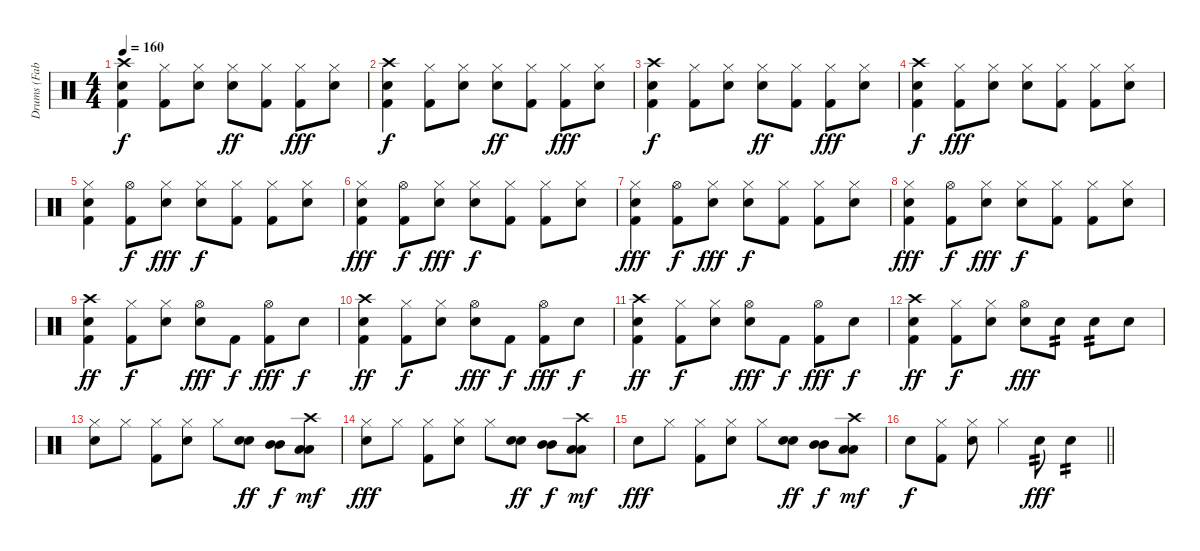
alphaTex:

\track ("Drums (Fabrizio Moretti)" "Drums (Fab") {instrument percussion}
\staff {score}
\articulation defaults
\ts (4 4)
\tempo 160
\clef neutral
\ks c
("Kick (hit) 2" "Electric Snare (hit)" "Crash high (hit)").4{dy f} ("Kick (hit) 2" "Hi-Hat (closed)").8 ("Electric Snare (hit)" "Hi-Hat (closed)").8 ("Electric Snare (hit)" "Hi-Hat (closed)").8{dy ff} ("Kick (hit) 2" "Hi-Hat (closed)").8 ("Kick (hit) 2" "Hi-Hat (closed)").8{dy fff} ("Electric Snare (hit)" "Hi-Hat (closed)").8 |
("Kick (hit) 2" "Electric Snare (hit)" "Crash high (hit)").4{dy f} ("Kick (hit) 2" "Hi-Hat (closed)").8 ("Electric Snare (hit)" "Hi-Hat (closed)").8 ("Electric Snare (hit)" "Hi-Hat (closed)").8{dy ff} ("Kick (hit) 2" "Hi-Hat (closed)").8 ("Kick (hit) 2" "Hi-Hat (closed)").8{dy fff} ("Electric Snare (hit)" "Hi-Hat (closed)").8 |
("Kick (hit) 2" "Electric Snare (hit)" "Crash high (hit)").4{dy f} ("Kick (hit) 2" "Hi-Hat (closed)").8 ("Electric Snare (hit)" "Hi-Hat (closed)").8 ("Electric Snare (hit)" "Hi-Hat (closed)").8{dy ff} ("Kick (hit) 2" "Hi-Hat (closed)").8 ("Kick (hit) 2" "Hi-Hat (closed)").8{dy fff} ("Electric Snare (hit)" "Hi-Hat (closed)").8 |
("Kick (hit) 2" "Electric Snare (hit)" "Crash high (hit)").4{dy f} ("Kick (hit) 2" "Hi-Hat (closed)").8{dy fff} ("Electric Snare (hit)" "Hi-Hat (closed)").8 ("Electric Snare (hit)" "Hi-Hat (closed)").8 ("Kick (hit) 2" "Hi-Hat (closed)").8 ("Kick (hit) 2" "Hi-Hat (closed)").8 ("Electric Snare (hit)" "Hi-Hat (closed)").8 |
("Kick (hit) 2" "Electric Snare (hit)" "Hi-Hat (closed)").4 ("Kick (hit) 2" "Hi-Hat (open)").8{dy f} ("Electric Snare (hit)" "Hi-Hat (closed)").8{dy fff} ("Electric Snare (hit)" "Hi-Hat (closed)").8{dy f} ("Kick (hit) 2" "Hi-Hat (closed)").8 ("Kick (hit) 2" "Hi-Hat (closed)").8 ("Electric Snare (hit)" "Hi-Hat (closed)").8 |
("Kick (hit) 2" "Electric Snare (hit)" "Hi-Hat (closed)").4{dy fff} ("Kick (hit) 2" "Hi-Hat (open)").8{dy f} ("Electric Snare (hit)" "Hi-Hat (closed)").8{dy fff} ("Electric Snare (hit)" "Hi-Hat (closed)").8{dy f} ("Kick (hit) 2" "Hi-Hat (closed)").8 ("Kick (hit) 2" "Hi-Hat (closed)").8 ("Electric Snare (hit)" "Hi-Hat (closed)").8 |
("Kick (hit) 2" "Electric Snare (hit)" "Hi-Hat (closed)").4{dy fff} ("Kick (hit) 2" "Hi-Hat (open)").8{dy f} ("Electric Snare (hit)" "Hi-Hat (closed)").8{dy fff} ("Electric Snare (hit)" "Hi-Hat (closed)").8{dy f} ("Kick (hit) 2" "Hi-Hat (closed)").8 ("Kick (hit) 2" "Hi-Hat (closed)").8 ("Electric Snare (hit)" "Hi-Hat (closed)").8 |
("Kick (hit) 2" "Electric Snare (hit)" "Hi-Hat (closed)").4{dy fff} ("Kick (hit) 2" "Hi-Hat (open)").8{dy f} ("Electric Snare (hit)" "Hi-Hat (closed)").8{dy fff} ("Electric Snare (hit)" "Hi-Hat (closed)").8{dy f} ("Kick (hit) 2" "Hi-Hat (closed)").8 ("Kick (hit) 2" "Hi-Hat (closed)").8 ("Electric Snare (hit)" "Hi-Hat (closed)").8 |
("Kick (hit) 2" "Electric Snare (hit)" "Crash high (hit)").4{dy ff} ("Kick (hit) 2" "Hi-Hat (closed)").8{dy f} ("Electric Snare (hit)" "Hi-Hat (closed)").8 ("Electric Snare (hit)" "Hi-Hat (open)").8{dy fff} "Kick (hit) 2".8{dy f} ("Kick (hit) 2" "Hi-Hat (open)").8{dy fff} "Electric Snare (hit)".8{dy f} |
("Kick (hit) 2" "Electric Snare (hit)" "Crash high (hit)").4{dy ff} ("Kick (hit) 2" "Hi-Hat (closed)").8{dy f} ("Electric Snare (hit)" "Hi-Hat (closed)").8 ("Electric Snare (hit)" "Hi-Hat (open)").8{dy fff} "Kick (hit) 2".8{dy f} ("Kick (hit) 2" "Hi-Hat (open)").8{dy fff} "Electric Snare (hit)".8{dy f} |
("Kick (hit) 2" "Electric Snare (hit)" "Crash high (hit)").4{dy ff} ("Kick (hit) 2" "Hi-Hat (closed)").8{dy f} ("Electric Snare (hit)" "Hi-Hat (closed)").8 ("Electric Snare (hit)" "Hi-Hat (open)").8{dy fff} "Kick (hit) 2".8{dy f} ("Kick (hit) 2" "Hi-Hat (open)").8{dy fff} "Electric Snare (hit)".8{dy f} |
("Kick (hit) 2" "Electric Snare (hit)" "Crash high (hit)").4{dy ff} ("Kick (hit) 2" "Hi-Hat (closed)").8{dy f} ("Electric Snare (hit)" "Hi-Hat (closed)").8 ("Electric Snare (hit)" "Hi-Hat (open)").8{dy fff} "Electric Snare (hit)".8{tp 2} "Electric Snare (hit)".8{tp 2} "Electric Snare (hit)".8 |
("Electric Snare (hit)" "Hi-Hat (closed)").8 "Hi-Hat (closed)".8 ("Kick (hit) 2" "Hi-Hat (closed)").8 ("Electric Snare (hit)" "Hi-Hat (closed)").8 "Hi-Hat (closed)".8 ("Electric Snare (hit)" "Electric Snare (hit)").8{dy ff} ("Mid Tom (hit)" "Mid Tom (hit)").8{dy f} ("Crash high (hit)" "Low Tom (hit)" "Low Tom (hit)").8{dy mf} |
("Electric Snare (hit)" "Hi-Hat (closed)").8{dy fff} "Hi-Hat (closed)".8 ("Kick (hit) 2" "Hi-Hat (closed)").8 ("Electric Snare (hit)" "Hi-Hat (closed)").8 "Hi-Hat (closed)".8 ("Electric Snare (hit)" "Electric Snare (hit)").8{dy ff} ("Mid Tom (hit)" "Mid Tom (hit)").8{dy f} ("Crash high (hit)" "Low Tom (hit)" "Low Tom (hit)").8{dy mf} |
"Electric Snare (hit)".8{dy fff} "Hi-Hat (closed)".8 ("Kick (hit) 2" "Hi-Hat (closed)").8 ("Electric Snare (hit)" "Hi-Hat (closed)").8 "Hi-Hat (closed)".8 ("Electric Snare (hit)" "Electric Snare (hit)").8{dy ff} ("Mid Tom (hit)" "Mid Tom (hit)").8{dy f} ("Crash high (hit)" "Low Tom (hit)" "Low Tom (hit)").8{dy mf} |
\barLineRight lightlight "Electric Snare (hit)".8{dy f}
("Kick (hit) 2" "Hi-Hat (closed)").8 ("Electric Snare (hit)" "Hi-Hat (closed)").8 "Hi-Hat (closed)".4 "Electric Snare (hit)".8{tp 2 dy fff} "Electric Snare (hit)".4{tp 2}
